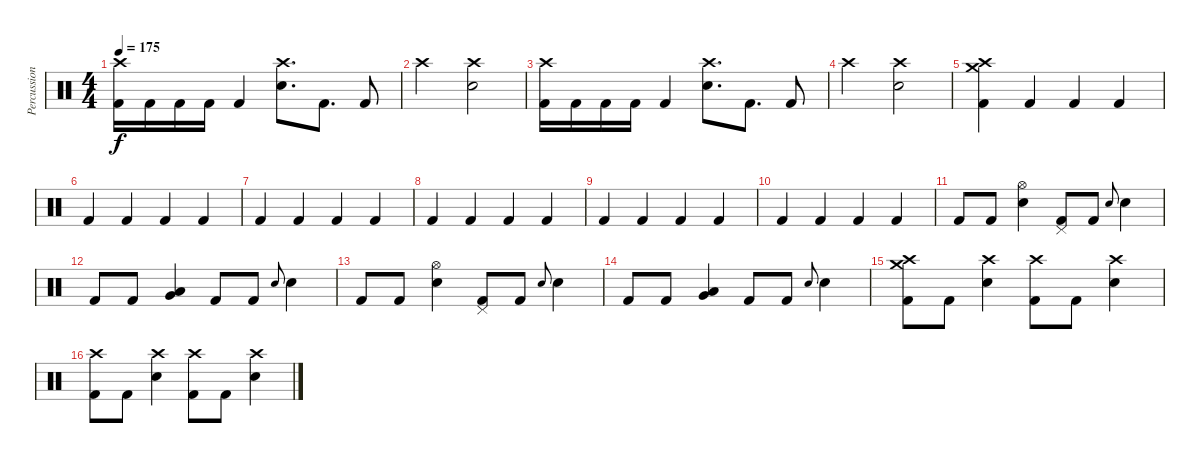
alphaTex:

\track ("Percussion" "Percussion") {instrument percussion}
\staff {score}
\articulation defaults
\ts (4 4)
\tempo 175
\clef neutral
\ks c
("Crash high (hit)" "Kick (hit) 2").16{dy f} "Kick (hit) 2".16 "Kick (hit) 2".16 "Kick (hit) 2".16 "Kick (hit) 2".4 ("Crash high (hit)" "Electric Snare (hit)").8{d} "Kick (hit) 2".8{d} "Kick (hit) 2".8 |
"Crash high (hit)".2 ("Crash high (hit)" "Electric Snare (hit)").2 |
("Crash high (hit)" "Kick (hit) 2").16 "Kick (hit) 2".16 "Kick (hit) 2".16 "Kick (hit) 2".16 "Kick (hit) 2".4 ("Crash high (hit)" "Electric Snare (hit)").8{d} "Kick (hit) 2".8{d} "Kick (hit) 2".8 |
"Crash high (hit)".2 ("Crash high (hit)" "Electric Snare (hit)").2 |
("Crash high (hit)" "Crash medium (hit)" "Kick (hit) 2").4 "Kick (hit) 2".4 "Kick (hit) 2".4 "Kick (hit) 2".4 |
"Kick (hit) 2".4 "Kick (hit) 2".4 "Kick (hit) 2".4 "Kick (hit) 2".4 |
"Kick (hit) 2".4 "Kick (hit) 2".4 "Kick (hit) 2".4 "Kick (hit) 2".4 |
"Kick (hit) 2".4 "Kick (hit) 2".4 "Kick (hit) 2".4 "Kick (hit) 2".4 |
"Kick (hit) 2".4 "Kick (hit) 2".4 "Kick (hit) 2".4 "Kick (hit) 2".4 |
"Kick (hit) 2".4 "Kick (hit) 2".4 "Kick (hit) 2".4 "Kick (hit) 2".4 |
"Kick (hit) 2".8 "Kick (hit) 2".8 ("Hi-Hat (open)" "Electric Snare (hit)").4 ("Pedal Hi-Hat (hit)" "Kick (hit) 2").8 "Kick (hit) 2".8 "Electric Snare (hit)".8{gr onbeat} "Electric Snare (hit)".4 |
"Kick (hit) 2".8 "Kick (hit) 2".8 ("Low Tom (hit)" "Very Low Tom (hit)").4 "Kick (hit) 2".8 "Kick (hit) 2".8 "Electric Snare (hit)".8{gr onbeat} "Electric Snare (hit)".4 |
"Kick (hit) 2".8 "Kick (hit) 2".8 ("Hi-Hat (open)" "Electric Snare (hit)").4 ("Pedal Hi-Hat (hit)" "Kick (hit) 2").8 "Kick (hit) 2".8 "Electric Snare (hit)".8{gr onbeat} "Electric Snare (hit)".4 |
"Kick (hit) 2".8 "Kick (hit) 2".8 ("Low Tom (hit)" "Very Low Tom (hit)").4 "Kick (hit) 2".8 "Kick (hit) 2".8 "Electric Snare (hit)".8{gr onbeat} "Electric Snare (hit)".4 |
("Crash high (hit)" "Crash medium (hit)" "Kick (hit) 2").8 "Kick (hit) 2".8 ("Crash high (hit)" "Electric Snare (hit)").4 ("Crash high (hit)" "Kick (hit) 2").8 "Kick (hit) 2".8 ("Crash high (hit)" "Electric Snare (hit)").4 |
("Crash high (hit)" "Kick (hit) 2").8 "Kick (hit) 2".8 ("Crash high (hit)" "Electric Snare (hit)").4 ("Crash high (hit)" "Kick (hit) 2").8 "Kick (hit) 2".8 ("Crash high (hit)" "Electric Snare (hit)").4
